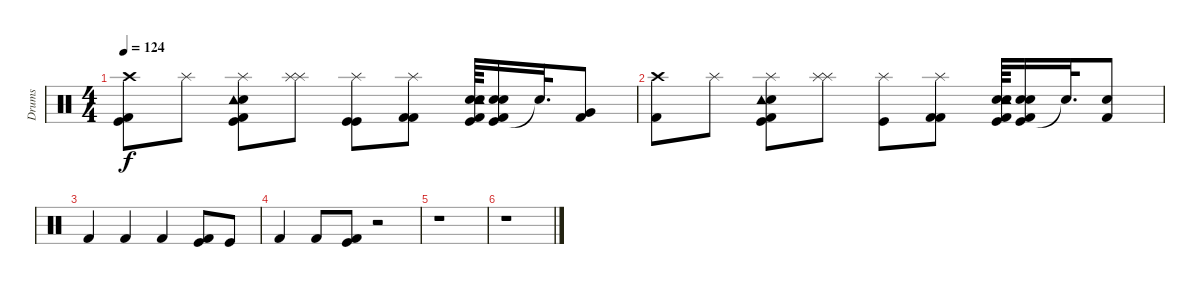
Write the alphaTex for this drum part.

\track ("Drums " "Drums ") {instrument percussion}
\staff {score}
\articulation defaults
\ts (4 4)
\tempo 124
\clef neutral
\ks c
("Kick (hit) 2" "Kick (hit)" "Crash high (hit)").8{dy f} "Splash (hit)".8 ("Kick (hit)" "Kick (hit) 2" "Electric Snare (hit)" "Tambourine (hit)" "Splash (hit)").8 ("Splash (hit)" "Splash (hit)").8 ("Splash (hit)" "Kick (hit)" "Kick (hit)").8 ("Splash (hit)" "Kick (hit) 2" "Kick (hit) 2").8 ("Kick (hit)" "Kick (hit) 2" "Electric Snare (hit)" "Tambourine (hit)" "Snare (hit) 2").64 ("Kick (hit)" "Kick (hit) 2" "Electric Snare (hit)" "Snare (hit) 2").16 "Snare (hit)"{t}.32{d} ("Very Low Tom (hit)" "Kick (hit) 2").8 |
("Kick (hit) 2" "Crash high (hit)").8 "Splash (hit)".8 ("Kick (hit)" "Kick (hit) 2" "Electric Snare (hit)" "Tambourine (hit)" "Splash (hit)").8 ("Splash (hit)" "Splash (hit)").8 ("Splash (hit)" "Kick (hit)").8 ("Splash (hit)" "Kick (hit) 2" "Kick (hit) 2").8 ("Kick (hit)" "Kick (hit) 2" "Electric Snare (hit)" "Tambourine (hit)" "Snare (hit) 2").64 ("Kick (hit)" "Kick (hit) 2" "Electric Snare (hit)" "Snare (hit) 2").16 "Snare (hit)"{t}.32{d} ("Electric Snare (hit)" "Kick (hit) 2").8 |
"Kick (hit) 2".4 "Kick (hit) 2".4 "Kick (hit) 2".4 ("Kick (hit) 2" "Kick (hit)").8 "Kick (hit)".8 |
"Kick (hit) 2".4 "Kick (hit) 2".8 ("Kick (hit) 2" "Kick (hit)").8 r.2 |
r.1 |
r.1
